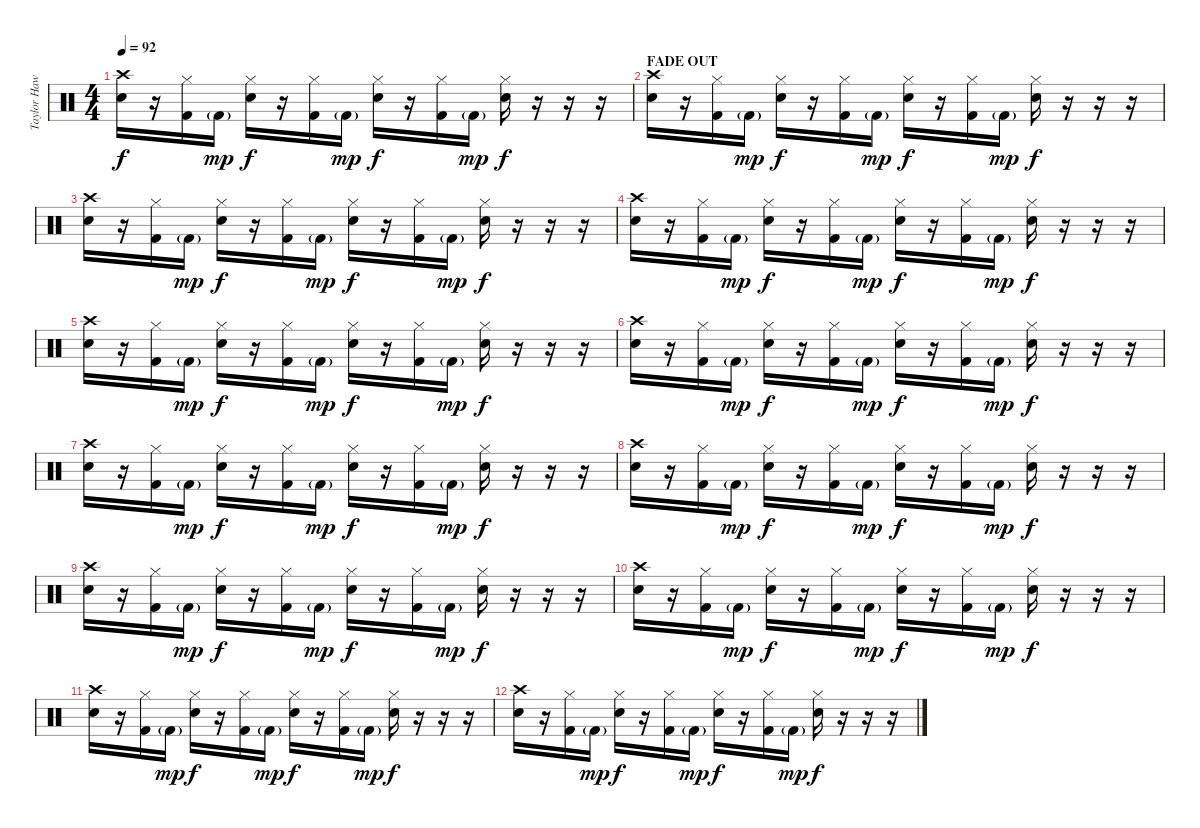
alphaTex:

\track ("Taylor Hawkins (Drums)" "Taylor Haw") {instrument percussion}
\staff {score}
\articulation defaults
\ts (4 4)
\tempo 92
\clef neutral
\ks c
("Crash high (hit)" "Electric Snare (hit)").16{dy f} r.16 ("Hi-Hat (closed)" "Kick (hit) 2").16 "Kick (hit) 2"{g}.16{dy mp} ("Hi-Hat (closed)" "Electric Snare (hit)").16{dy f} r.16 ("Hi-Hat (closed)" "Kick (hit) 2").16 "Kick (hit) 2"{g}.16{dy mp} ("Hi-Hat (closed)" "Electric Snare (hit)").16{dy f} r.16 ("Hi-Hat (closed)" "Kick (hit) 2").16 "Kick (hit) 2"{g}.16{dy mp} ("Hi-Hat (closed)" "Electric Snare (hit)").16{dy f} r.16 r.16 r.16 |
\section ("" "FADE OUT")
("Crash high (hit)" "Electric Snare (hit)").16 r.16 ("Hi-Hat (closed)" "Kick (hit) 2").16 "Kick (hit) 2"{g}.16{dy mp} ("Hi-Hat (closed)" "Electric Snare (hit)").16{dy f} r.16 ("Hi-Hat (closed)" "Kick (hit) 2").16 "Kick (hit) 2"{g}.16{dy mp} ("Hi-Hat (closed)" "Electric Snare (hit)").16{dy f} r.16 ("Hi-Hat (closed)" "Kick (hit) 2").16 "Kick (hit) 2"{g}.16{dy mp} ("Hi-Hat (closed)" "Electric Snare (hit)").16{dy f} r.16 r.16 r.16 |
("Crash high (hit)" "Electric Snare (hit)").16 r.16 ("Hi-Hat (closed)" "Kick (hit) 2").16 "Kick (hit) 2"{g}.16{dy mp} ("Hi-Hat (closed)" "Electric Snare (hit)").16{dy f} r.16 ("Hi-Hat (closed)" "Kick (hit) 2").16 "Kick (hit) 2"{g}.16{dy mp} ("Hi-Hat (closed)" "Electric Snare (hit)").16{dy f} r.16 ("Hi-Hat (closed)" "Kick (hit) 2").16 "Kick (hit) 2"{g}.16{dy mp} ("Hi-Hat (closed)" "Electric Snare (hit)").16{dy f} r.16 r.16 r.16 |
("Crash high (hit)" "Electric Snare (hit)").16 r.16 ("Hi-Hat (closed)" "Kick (hit) 2").16 "Kick (hit) 2"{g}.16{dy mp} ("Hi-Hat (closed)" "Electric Snare (hit)").16{dy f} r.16 ("Hi-Hat (closed)" "Kick (hit) 2").16 "Kick (hit) 2"{g}.16{dy mp} ("Hi-Hat (closed)" "Electric Snare (hit)").16{dy f} r.16 ("Hi-Hat (closed)" "Kick (hit) 2").16 "Kick (hit) 2"{g}.16{dy mp} ("Hi-Hat (closed)" "Electric Snare (hit)").16{dy f} r.16 r.16 r.16 |
("Crash high (hit)" "Electric Snare (hit)").16 r.16 ("Hi-Hat (closed)" "Kick (hit) 2").16 "Kick (hit) 2"{g}.16{dy mp} ("Hi-Hat (closed)" "Electric Snare (hit)").16{dy f} r.16 ("Hi-Hat (closed)" "Kick (hit) 2").16 "Kick (hit) 2"{g}.16{dy mp} ("Hi-Hat (closed)" "Electric Snare (hit)").16{dy f} r.16 ("Hi-Hat (closed)" "Kick (hit) 2").16 "Kick (hit) 2"{g}.16{dy mp} ("Hi-Hat (closed)" "Electric Snare (hit)").16{dy f} r.16 r.16 r.16 |
("Crash high (hit)" "Electric Snare (hit)").16 r.16 ("Hi-Hat (closed)" "Kick (hit) 2").16 "Kick (hit) 2"{g}.16{dy mp} ("Hi-Hat (closed)" "Electric Snare (hit)").16{dy f} r.16 ("Hi-Hat (closed)" "Kick (hit) 2").16 "Kick (hit) 2"{g}.16{dy mp} ("Hi-Hat (closed)" "Electric Snare (hit)").16{dy f} r.16 ("Hi-Hat (closed)" "Kick (hit) 2").16 "Kick (hit) 2"{g}.16{dy mp} ("Hi-Hat (closed)" "Electric Snare (hit)").16{dy f} r.16 r.16 r.16 |
("Crash high (hit)" "Electric Snare (hit)").16 r.16 ("Hi-Hat (closed)" "Kick (hit) 2").16 "Kick (hit) 2"{g}.16{dy mp} ("Hi-Hat (closed)" "Electric Snare (hit)").16{dy f} r.16 ("Hi-Hat (closed)" "Kick (hit) 2").16 "Kick (hit) 2"{g}.16{dy mp} ("Hi-Hat (closed)" "Electric Snare (hit)").16{dy f} r.16 ("Hi-Hat (closed)" "Kick (hit) 2").16 "Kick (hit) 2"{g}.16{dy mp} ("Hi-Hat (closed)" "Electric Snare (hit)").16{dy f} r.16 r.16 r.16 |
("Crash high (hit)" "Electric Snare (hit)").16 r.16 ("Hi-Hat (closed)" "Kick (hit) 2").16 "Kick (hit) 2"{g}.16{dy mp} ("Hi-Hat (closed)" "Electric Snare (hit)").16{dy f} r.16 ("Hi-Hat (closed)" "Kick (hit) 2").16 "Kick (hit) 2"{g}.16{dy mp} ("Hi-Hat (closed)" "Electric Snare (hit)").16{dy f} r.16 ("Hi-Hat (closed)" "Kick (hit) 2").16 "Kick (hit) 2"{g}.16{dy mp} ("Hi-Hat (closed)" "Electric Snare (hit)").16{dy f} r.16 r.16 r.16 |
("Crash high (hit)" "Electric Snare (hit)").16 r.16 ("Hi-Hat (closed)" "Kick (hit) 2").16 "Kick (hit) 2"{g}.16{dy mp} ("Hi-Hat (closed)" "Electric Snare (hit)").16{dy f} r.16 ("Hi-Hat (closed)" "Kick (hit) 2").16 "Kick (hit) 2"{g}.16{dy mp} ("Hi-Hat (closed)" "Electric Snare (hit)").16{dy f} r.16 ("Hi-Hat (closed)" "Kick (hit) 2").16 "Kick (hit) 2"{g}.16{dy mp} ("Hi-Hat (closed)" "Electric Snare (hit)").16{dy f} r.16 r.16 r.16 |
("Crash high (hit)" "Electric Snare (hit)").16 r.16 ("Hi-Hat (closed)" "Kick (hit) 2").16 "Kick (hit) 2"{g}.16{dy mp} ("Hi-Hat (closed)" "Electric Snare (hit)").16{dy f} r.16 ("Hi-Hat (closed)" "Kick (hit) 2").16 "Kick (hit) 2"{g}.16{dy mp} ("Hi-Hat (closed)" "Electric Snare (hit)").16{dy f} r.16 ("Hi-Hat (closed)" "Kick (hit) 2").16 "Kick (hit) 2"{g}.16{dy mp} ("Hi-Hat (closed)" "Electric Snare (hit)").16{dy f} r.16 r.16 r.16 |
("Crash high (hit)" "Electric Snare (hit)").16 r.16 ("Hi-Hat (closed)" "Kick (hit) 2").16 "Kick (hit) 2"{g}.16{dy mp} ("Hi-Hat (closed)" "Electric Snare (hit)").16{dy f} r.16 ("Hi-Hat (closed)" "Kick (hit) 2").16 "Kick (hit) 2"{g}.16{dy mp} ("Hi-Hat (closed)" "Electric Snare (hit)").16{dy f} r.16 ("Hi-Hat (closed)" "Kick (hit) 2").16 "Kick (hit) 2"{g}.16{dy mp} ("Hi-Hat (closed)" "Electric Snare (hit)").16{dy f} r.16 r.16 r.16 |
("Crash high (hit)" "Electric Snare (hit)").16 r.16 ("Hi-Hat (closed)" "Kick (hit) 2").16 "Kick (hit) 2"{g}.16{dy mp} ("Hi-Hat (closed)" "Electric Snare (hit)").16{dy f} r.16 ("Hi-Hat (closed)" "Kick (hit) 2").16 "Kick (hit) 2"{g}.16{dy mp} ("Hi-Hat (closed)" "Electric Snare (hit)").16{dy f} r.16 ("Hi-Hat (closed)" "Kick (hit) 2").16 "Kick (hit) 2"{g}.16{dy mp} ("Hi-Hat (closed)" "Electric Snare (hit)").16{dy f} r.16 r.16 r.16
